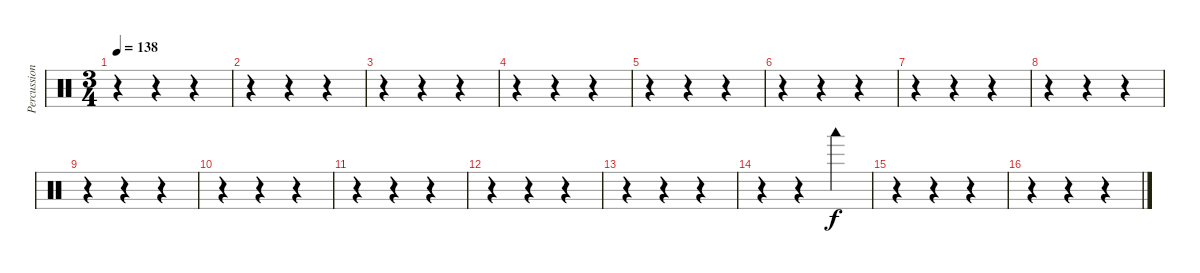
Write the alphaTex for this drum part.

\track ("Percussions" "Percussion") {instrument percussion}
\staff {score}
\articulation defaults
\ts (3 4)
\tempo 138
\clef neutral
\ks c
r.4{dy f} r.4 r.4 |
r.4 r.4 r.4 |
r.4 r.4 r.4 |
r.4 r.4 r.4 |
r.4 r.4 r.4 |
r.4 r.4 r.4 |
r.4 r.4 r.4 |
r.4 r.4 r.4 |
r.4 r.4 r.4 |
r.4 r.4 r.4 |
r.4 r.4 r.4 |
r.4 r.4 r.4 |
r.4 r.4 r.4 |
r.4 r.4 "Woodblock low (hit)".4 |
r.4 r.4 r.4 |
r.4 r.4 r.4
